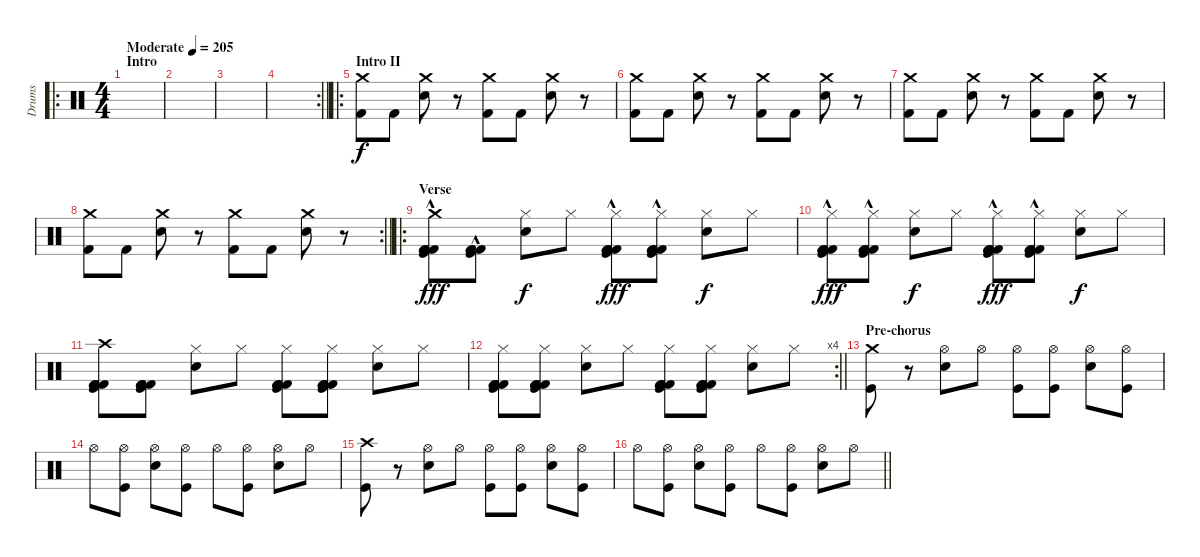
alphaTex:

\track ("Drums" "Drums") {instrument percussion}
\staff {score}
\articulation defaults
\ro
\ts (4 4)
\section ("" "Intro")
\tempo (205 "Moderate")
\clef neutral
\ks c
|
|
|
\rc 2
\barLineRight lightlight
|
\ro
\section ("" "Intro II")
("Crash medium (hit)" "Kick (hit) 2").8 "Kick (hit) 2".8 ("Crash medium (hit)" "Electric Snare (hit)").8 r.8 ("Crash medium (hit)" "Kick (hit) 2").8 "Kick (hit) 2".8 ("Crash medium (hit)" "Electric Snare (hit)").8 r.8 |
("Crash medium (hit)" "Kick (hit) 2").8 "Kick (hit) 2".8 ("Crash medium (hit)" "Electric Snare (hit)").8 r.8 ("Crash medium (hit)" "Kick (hit) 2").8 "Kick (hit) 2".8 ("Crash medium (hit)" "Electric Snare (hit)").8 r.8 |
("Crash medium (hit)" "Kick (hit) 2").8 "Kick (hit) 2".8 ("Crash medium (hit)" "Electric Snare (hit)").8 r.8 ("Crash medium (hit)" "Kick (hit) 2").8 "Kick (hit) 2".8 ("Crash medium (hit)" "Electric Snare (hit)").8 r.8 |
\rc 2
\barLineRight lightlight
("Crash medium (hit)" "Kick (hit) 2").8 "Kick (hit) 2".8 ("Crash medium (hit)" "Electric Snare (hit)").8 r.8 ("Crash medium (hit)" "Kick (hit) 2").8 "Kick (hit) 2".8 ("Crash medium (hit)" "Electric Snare (hit)").8 r.8 |
\ro
\section ("" "Verse")
("Kick (hit) 2" "Kick (hit) 2" "Crash medium (hit)" "Kick (hit) 2"{hac} "Kick (hit)"{hac}).8{dy fff} ("Kick (hit) 2" "Kick (hit) 2" "Kick (hit) 2"{hac} "Kick (hit)"{hac}).8 ("Hi-Hat (closed)" "Electric Snare (hit)").8{dy f} "Hi-Hat (closed)".8 ("Kick (hit) 2" "Kick (hit) 2" "Hi-Hat (closed)" "Kick (hit)"{hac} "Kick (hit) 2"{hac}).8{dy fff} ("Kick (hit) 2" "Kick (hit) 2" "Hi-Hat (closed)" "Kick (hit)"{hac} "Kick (hit) 2"{hac}).8 ("Hi-Hat (closed)" "Electric Snare (hit)").8{dy f} "Hi-Hat (closed)".8 |
("Kick (hit) 2" "Kick (hit) 2" "Hi-Hat (closed)" "Kick (hit)"{hac} "Kick (hit) 2"{hac}).8{dy fff} ("Kick (hit) 2" "Kick (hit) 2" "Hi-Hat (closed)" "Kick (hit)"{hac} "Kick (hit) 2"{hac}).8 ("Hi-Hat (closed)" "Electric Snare (hit)").8{dy f} "Hi-Hat (closed)".8 ("Kick (hit) 2" "Kick (hit) 2" "Hi-Hat (closed)" "Kick (hit)"{hac} "Kick (hit) 2"{hac}).8{dy fff} ("Kick (hit) 2" "Kick (hit) 2" "Hi-Hat (closed)" "Kick (hit)"{hac} "Kick (hit) 2"{hac}).8 ("Hi-Hat (closed)" "Electric Snare (hit)").8{dy f} "Hi-Hat (closed)".8 |
("Kick (hit) 2" "Kick (hit) 2" "Crash high (hit)" "Kick (hit) 2" "Kick (hit)").8 ("Kick (hit) 2" "Kick (hit) 2" "Kick (hit) 2" "Kick (hit)").8 ("Hi-Hat (closed)" "Electric Snare (hit)").8 "Hi-Hat (closed)".8 ("Kick (hit) 2" "Kick (hit) 2" "Hi-Hat (closed)" "Kick (hit) 2" "Kick (hit)").8 ("Kick (hit) 2" "Kick (hit) 2" "Hi-Hat (closed)" "Kick (hit) 2" "Kick (hit)").8 ("Hi-Hat (closed)" "Electric Snare (hit)").8 "Hi-Hat (closed)".8 |
\rc 4
\barLineRight lightlight
("Kick (hit) 2" "Kick (hit) 2" "Hi-Hat (closed)" "Kick (hit) 2" "Kick (hit)").8 ("Kick (hit) 2" "Kick (hit) 2" "Hi-Hat (closed)" "Kick (hit) 2" "Kick (hit)").8 ("Hi-Hat (closed)" "Electric Snare (hit)").8 "Hi-Hat (closed)".8 ("Kick (hit) 2" "Kick (hit) 2" "Hi-Hat (closed)" "Kick (hit) 2" "Kick (hit)").8 ("Kick (hit) 2" "Kick (hit) 2" "Hi-Hat (closed)" "Kick (hit) 2" "Kick (hit)").8 ("Hi-Hat (closed)" "Electric Snare (hit)").8 "Hi-Hat (closed)".8 |
\section ("" "Pre-chorus")
("Crash medium (hit)" "Kick (hit)").8 r.8 ("Hi-Hat (open)" "Electric Snare (hit)").8 "Hi-Hat (open)".8 ("Hi-Hat (open)" "Kick (hit)").8 ("Hi-Hat (open)" "Kick (hit)").8 ("Hi-Hat (open)" "Electric Snare (hit)").8 ("Hi-Hat (open)" "Kick (hit)").8 |
"Hi-Hat (open)".8 ("Hi-Hat (open)" "Kick (hit)").8 ("Hi-Hat (open)" "Electric Snare (hit)").8 ("Hi-Hat (open)" "Kick (hit)").8 "Hi-Hat (open)".8 ("Hi-Hat (open)" "Kick (hit)").8 ("Hi-Hat (open)" "Electric Snare (hit)").8 "Hi-Hat (open)".8 |
("Crash high (hit)" "Kick (hit)").8 r.8 ("Hi-Hat (open)" "Electric Snare (hit)").8 "Hi-Hat (open)".8 ("Hi-Hat (open)" "Kick (hit)").8 ("Hi-Hat (open)" "Kick (hit)").8 ("Hi-Hat (open)" "Electric Snare (hit)").8 ("Hi-Hat (open)" "Kick (hit)").8 |
\barLineRight lightlight "Hi-Hat (open)".8
("Hi-Hat (open)" "Kick (hit)").8 ("Hi-Hat (open)" "Electric Snare (hit)").8 ("Hi-Hat (open)" "Kick (hit)").8 "Hi-Hat (open)".8 ("Hi-Hat (open)" "Kick (hit)").8 ("Hi-Hat (open)" "Electric Snare (hit)").8 "Hi-Hat (open)".8
